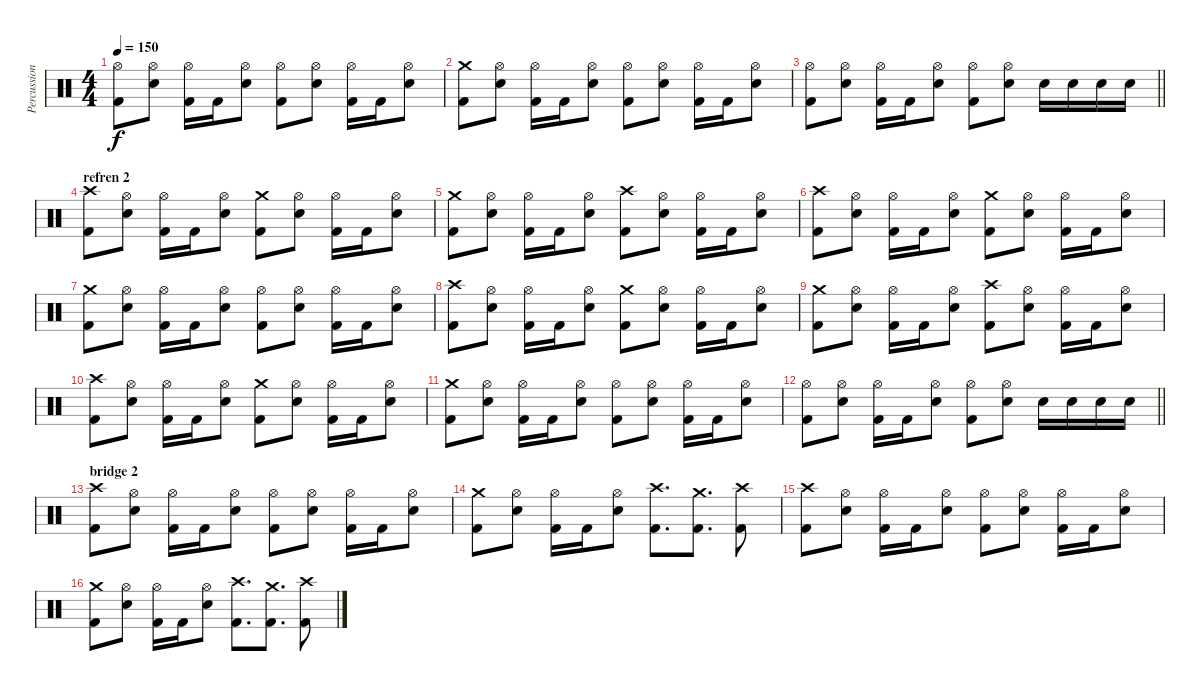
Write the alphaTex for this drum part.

\track ("Percussion" "Percussion") {instrument percussion}
\staff {score}
\articulation defaults
\ts (4 4)
\tempo 150
\clef neutral
\ks c
("Kick (hit) 2" "Hi-Hat (open)").8{dy f} ("Snare (hit) 2" "Hi-Hat (open)").8 ("Kick (hit) 2" "Hi-Hat (open)").16 "Kick (hit) 2".16 ("Snare (hit) 2" "Hi-Hat (open)").8 ("Kick (hit) 2" "Hi-Hat (open)").8 ("Snare (hit) 2" "Hi-Hat (open)").8 ("Kick (hit) 2" "Hi-Hat (open)").16 "Kick (hit) 2".16 ("Snare (hit) 2" "Hi-Hat (open)").8 |
("Kick (hit) 2" "Crash medium (hit)").8 ("Snare (hit) 2" "Hi-Hat (open)").8 ("Kick (hit) 2" "Hi-Hat (open)").16 "Kick (hit) 2".16 ("Snare (hit) 2" "Hi-Hat (open)").8 ("Kick (hit) 2" "Hi-Hat (open)").8 ("Snare (hit) 2" "Hi-Hat (open)").8 ("Kick (hit) 2" "Hi-Hat (open)").16 "Kick (hit) 2".16 ("Snare (hit) 2" "Hi-Hat (open)").8 |
\barLineRight lightlight
("Kick (hit) 2" "Hi-Hat (open)").8 ("Snare (hit) 2" "Hi-Hat (open)").8 ("Kick (hit) 2" "Hi-Hat (open)").16 "Kick (hit) 2".16 ("Snare (hit) 2" "Hi-Hat (open)").8 ("Kick (hit) 2" "Hi-Hat (open)").8 ("Snare (hit) 2" "Hi-Hat (open)").8 "Snare (hit) 2".16 "Snare (hit) 2".16 "Snare (hit) 2".16 "Snare (hit) 2".16 |
\section ("" "refren 2")
("Kick (hit) 2" "Crash high (hit)").8 ("Snare (hit) 2" "Hi-Hat (open)").8 ("Kick (hit) 2" "Hi-Hat (open)").16 "Kick (hit) 2".16 ("Snare (hit) 2" "Hi-Hat (open)").8 ("Kick (hit) 2" "Crash medium (hit)").8 ("Snare (hit) 2" "Hi-Hat (open)").8 ("Kick (hit) 2" "Hi-Hat (open)").16 "Kick (hit) 2".16 ("Snare (hit) 2" "Hi-Hat (open)").8 |
("Kick (hit) 2" "Crash medium (hit)").8 ("Snare (hit) 2" "Hi-Hat (open)").8 ("Kick (hit) 2" "Hi-Hat (open)").16 "Kick (hit) 2".16 ("Snare (hit) 2" "Hi-Hat (open)").8 ("Kick (hit) 2" "Crash high (hit)").8 ("Snare (hit) 2" "Hi-Hat (open)").8 ("Kick (hit) 2" "Hi-Hat (open)").16 "Kick (hit) 2".16 ("Snare (hit) 2" "Hi-Hat (open)").8 |
("Kick (hit) 2" "Crash high (hit)").8 ("Snare (hit) 2" "Hi-Hat (open)").8 ("Kick (hit) 2" "Hi-Hat (open)").16 "Kick (hit) 2".16 ("Snare (hit) 2" "Hi-Hat (open)").8 ("Kick (hit) 2" "Crash medium (hit)").8 ("Snare (hit) 2" "Hi-Hat (open)").8 ("Kick (hit) 2" "Hi-Hat (open)").16 "Kick (hit) 2".16 ("Snare (hit) 2" "Hi-Hat (open)").8 |
("Kick (hit) 2" "Crash medium (hit)").8 ("Snare (hit) 2" "Hi-Hat (open)").8 ("Kick (hit) 2" "Hi-Hat (open)").16 "Kick (hit) 2".16 ("Snare (hit) 2" "Hi-Hat (open)").8 ("Kick (hit) 2" "Hi-Hat (open)").8 ("Snare (hit) 2" "Hi-Hat (open)").8 ("Kick (hit) 2" "Hi-Hat (open)").16 "Kick (hit) 2".16 ("Snare (hit) 2" "Hi-Hat (open)").8 |
("Kick (hit) 2" "Crash high (hit)").8 ("Snare (hit) 2" "Hi-Hat (open)").8 ("Kick (hit) 2" "Hi-Hat (open)").16 "Kick (hit) 2".16 ("Snare (hit) 2" "Hi-Hat (open)").8 ("Kick (hit) 2" "Crash medium (hit)").8 ("Snare (hit) 2" "Hi-Hat (open)").8 ("Kick (hit) 2" "Hi-Hat (open)").16 "Kick (hit) 2".16 ("Snare (hit) 2" "Hi-Hat (open)").8 |
("Kick (hit) 2" "Crash medium (hit)").8 ("Snare (hit) 2" "Hi-Hat (open)").8 ("Kick (hit) 2" "Hi-Hat (open)").16 "Kick (hit) 2".16 ("Snare (hit) 2" "Hi-Hat (open)").8 ("Kick (hit) 2" "Crash high (hit)").8 ("Snare (hit) 2" "Hi-Hat (open)").8 ("Kick (hit) 2" "Hi-Hat (open)").16 "Kick (hit) 2".16 ("Snare (hit) 2" "Hi-Hat (open)").8 |
("Kick (hit) 2" "Crash high (hit)").8 ("Snare (hit) 2" "Hi-Hat (open)").8 ("Kick (hit) 2" "Hi-Hat (open)").16 "Kick (hit) 2".16 ("Snare (hit) 2" "Hi-Hat (open)").8 ("Kick (hit) 2" "Crash medium (hit)").8 ("Snare (hit) 2" "Hi-Hat (open)").8 ("Kick (hit) 2" "Hi-Hat (open)").16 "Kick (hit) 2".16 ("Snare (hit) 2" "Hi-Hat (open)").8 |
("Kick (hit) 2" "Crash medium (hit)").8 ("Snare (hit) 2" "Hi-Hat (open)").8 ("Kick (hit) 2" "Hi-Hat (open)").16 "Kick (hit) 2".16 ("Snare (hit) 2" "Hi-Hat (open)").8 ("Kick (hit) 2" "Hi-Hat (open)").8 ("Snare (hit) 2" "Hi-Hat (open)").8 ("Kick (hit) 2" "Hi-Hat (open)").16 "Kick (hit) 2".16 ("Snare (hit) 2" "Hi-Hat (open)").8 |
\barLineRight lightlight
("Kick (hit) 2" "Hi-Hat (open)").8 ("Snare (hit) 2" "Hi-Hat (open)").8 ("Kick (hit) 2" "Hi-Hat (open)").16 "Kick (hit) 2".16 ("Snare (hit) 2" "Hi-Hat (open)").8 ("Kick (hit) 2" "Hi-Hat (open)").8 ("Snare (hit) 2" "Hi-Hat (open)").8 "Snare (hit) 2".16 "Snare (hit) 2".16 "Snare (hit) 2".16 "Snare (hit) 2".16 |
\section ("" "bridge 2")
("Kick (hit) 2" "Crash high (hit)").8 ("Snare (hit) 2" "Hi-Hat (open)").8 ("Kick (hit) 2" "Hi-Hat (open)").16 "Kick (hit) 2".16 ("Snare (hit) 2" "Hi-Hat (open)").8 ("Kick (hit) 2" "Hi-Hat (open)").8 ("Snare (hit) 2" "Hi-Hat (open)").8 ("Kick (hit) 2" "Hi-Hat (open)").16 "Kick (hit) 2".16 ("Snare (hit) 2" "Hi-Hat (open)").8 |
("Kick (hit) 2" "Crash medium (hit)").8 ("Snare (hit) 2" "Hi-Hat (open)").8 ("Kick (hit) 2" "Hi-Hat (open)").16 "Kick (hit) 2".16 ("Snare (hit) 2" "Hi-Hat (open)").8 ("Kick (hit) 2" "Crash high (hit)").8{d} ("Kick (hit) 2" "Crash medium (hit)").8{d} ("Kick (hit) 2" "Crash high (hit)").8 |
("Kick (hit) 2" "Crash high (hit)").8 ("Snare (hit) 2" "Hi-Hat (open)").8 ("Kick (hit) 2" "Hi-Hat (open)").16 "Kick (hit) 2".16 ("Snare (hit) 2" "Hi-Hat (open)").8 ("Kick (hit) 2" "Hi-Hat (open)").8 ("Snare (hit) 2" "Hi-Hat (open)").8 ("Kick (hit) 2" "Hi-Hat (open)").16 "Kick (hit) 2".16 ("Snare (hit) 2" "Hi-Hat (open)").8 |
("Kick (hit) 2" "Crash medium (hit)").8 ("Snare (hit) 2" "Hi-Hat (open)").8 ("Kick (hit) 2" "Hi-Hat (open)").16 "Kick (hit) 2".16 ("Snare (hit) 2" "Hi-Hat (open)").8 ("Kick (hit) 2" "Crash high (hit)").8{d} ("Kick (hit) 2" "Crash medium (hit)").8{d} ("Kick (hit) 2" "Crash high (hit)").8
